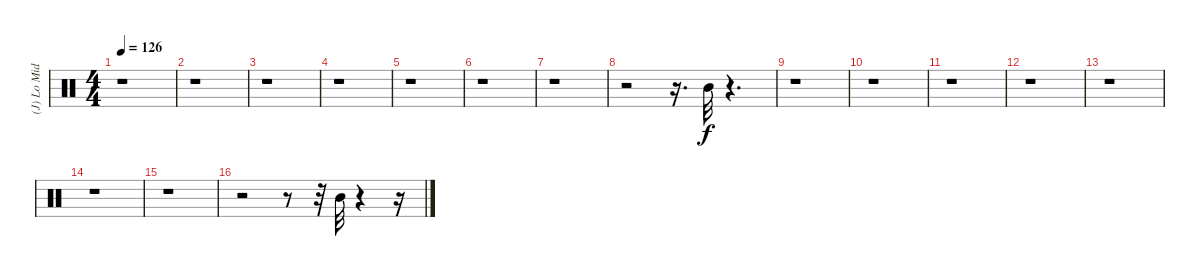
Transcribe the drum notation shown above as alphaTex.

\track ("(J) Lo Mid Tom" "(J) Lo Mid") {instrument percussion}
\staff {score}
\articulation defaults
\ts (4 4)
\tempo 126
\clef neutral
\ks c
r.1{dy ff} |
r.1 |
r.1 |
r.1 |
r.1 |
r.1 |
r.1 |
r.2 r.16{d} "Mid Tom (hit)".32{dy f} r.4{d} |
r.1 |
r.1 |
r.1 |
r.1 |
r.1 |
r.1 |
r.1 |
r.2 r.8 r.32 "Mid Tom (hit)".32 r.4 r.16
